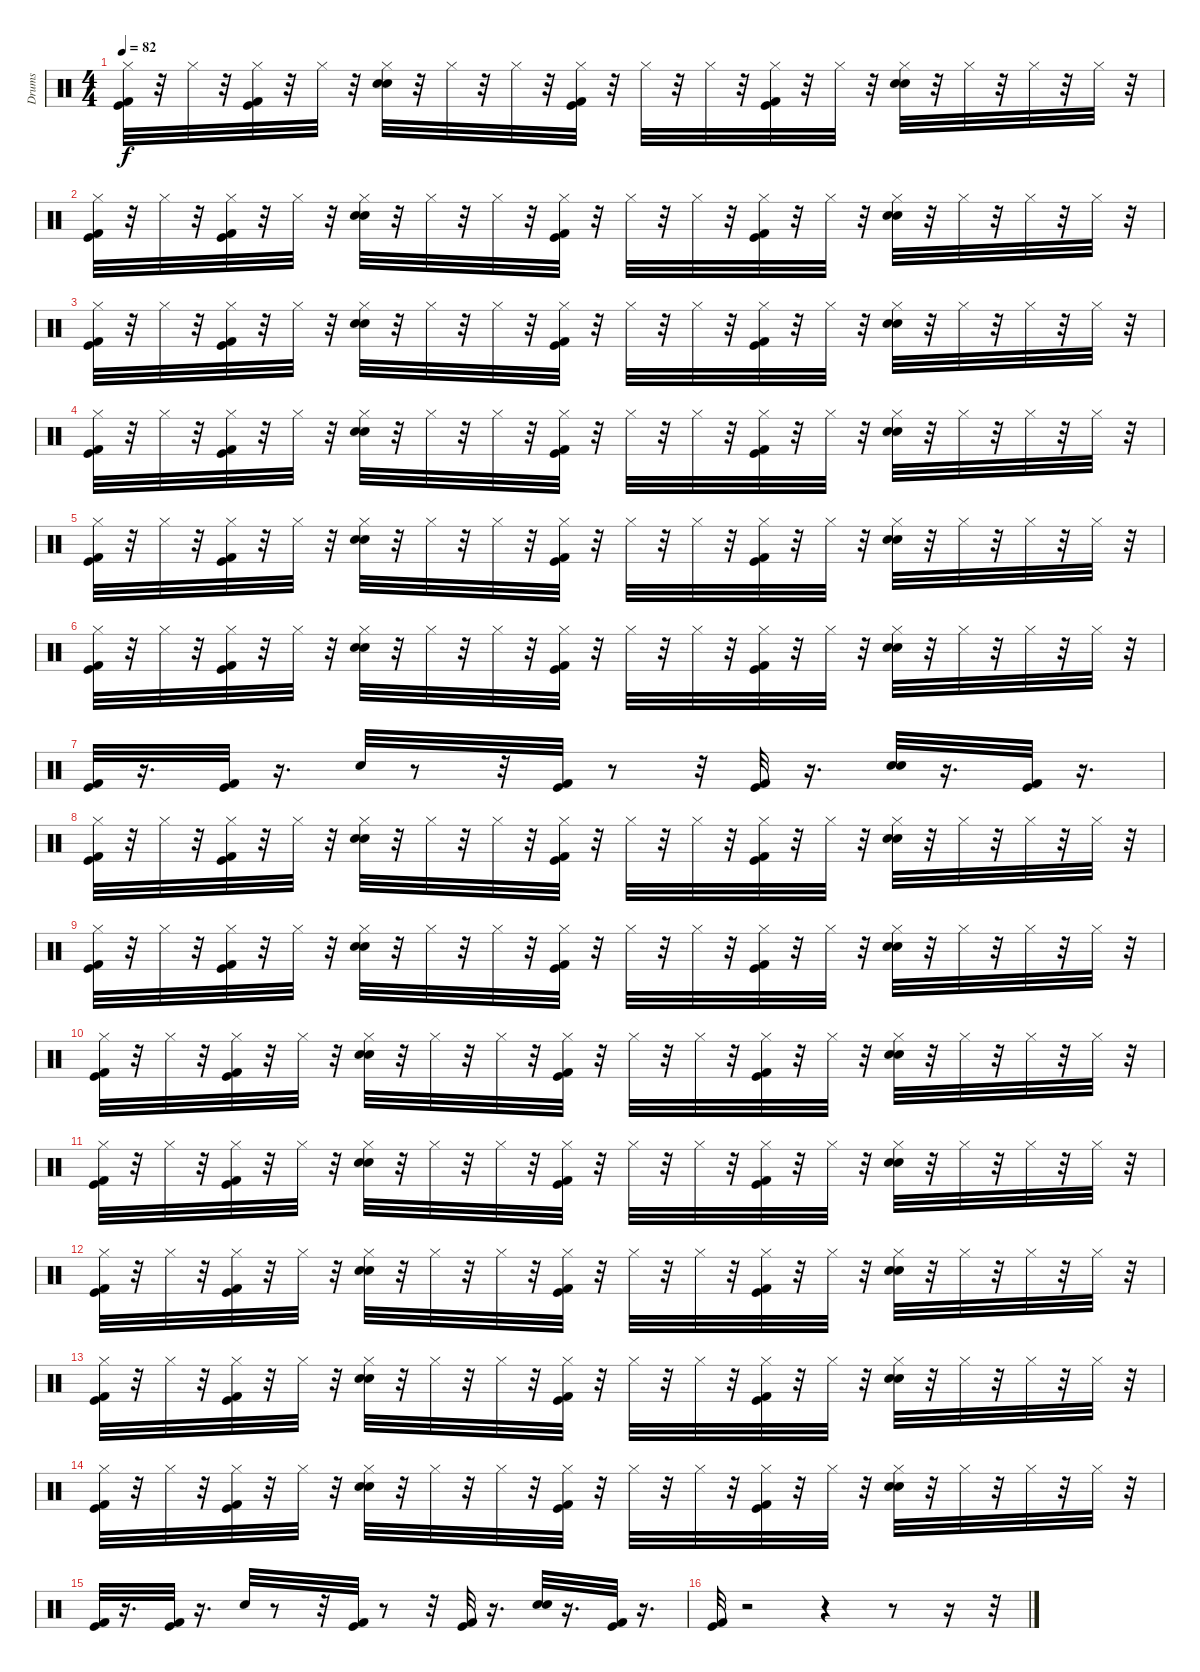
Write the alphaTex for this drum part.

\track ("Drums" "Drums") {instrument percussion}
\staff {score}
\articulation defaults
\ts (4 4)
\tempo 82
\clef neutral
\ks c
("Hi-Hat (closed)" "Kick (hit)" "Kick (hit) 2").32{dy f} r.32 "Hi-Hat (closed)".32 r.32 ("Hi-Hat (closed)" "Kick (hit) 2" "Kick (hit)").32 r.32 "Hi-Hat (closed)".32 r.32 ("Hi-Hat (closed)" "Snare (hit) 2" "Electric Snare (hit)").32 r.32 "Hi-Hat (closed)".32 r.32 "Hi-Hat (closed)".32 r.32 ("Hi-Hat (closed)" "Kick (hit) 2" "Kick (hit)").32 r.32 "Hi-Hat (closed)".32 r.32 "Hi-Hat (closed)".32 r.32 ("Hi-Hat (closed)" "Kick (hit) 2" "Kick (hit)").32 r.32 "Hi-Hat (closed)".32 r.32 ("Hi-Hat (closed)" "Electric Snare (hit)" "Snare (hit) 2").32 r.32 "Hi-Hat (closed)".32 r.32 "Hi-Hat (closed)".32 r.32 "Hi-Hat (closed)".32 r.32 |
("Hi-Hat (closed)" "Kick (hit)" "Kick (hit) 2").32 r.32 "Hi-Hat (closed)".32 r.32 ("Hi-Hat (closed)" "Kick (hit) 2" "Kick (hit)").32 r.32 "Hi-Hat (closed)".32 r.32 ("Hi-Hat (closed)" "Snare (hit) 2" "Electric Snare (hit)").32 r.32 "Hi-Hat (closed)".32 r.32 "Hi-Hat (closed)".32 r.32 ("Hi-Hat (closed)" "Kick (hit) 2" "Kick (hit)").32 r.32 "Hi-Hat (closed)".32 r.32 "Hi-Hat (closed)".32 r.32 ("Hi-Hat (closed)" "Kick (hit) 2" "Kick (hit)").32 r.32 "Hi-Hat (closed)".32 r.32 ("Hi-Hat (closed)" "Electric Snare (hit)" "Snare (hit) 2").32 r.32 "Hi-Hat (closed)".32 r.32 "Hi-Hat (closed)".32 r.32 "Hi-Hat (closed)".32 r.32 |
("Hi-Hat (closed)" "Kick (hit)" "Kick (hit) 2").32 r.32 "Hi-Hat (closed)".32 r.32 ("Hi-Hat (closed)" "Kick (hit) 2" "Kick (hit)").32 r.32 "Hi-Hat (closed)".32 r.32 ("Hi-Hat (closed)" "Snare (hit) 2" "Electric Snare (hit)").32 r.32 "Hi-Hat (closed)".32 r.32 "Hi-Hat (closed)".32 r.32 ("Hi-Hat (closed)" "Kick (hit) 2" "Kick (hit)").32 r.32 "Hi-Hat (closed)".32 r.32 "Hi-Hat (closed)".32 r.32 ("Hi-Hat (closed)" "Kick (hit) 2" "Kick (hit)").32 r.32 "Hi-Hat (closed)".32 r.32 ("Hi-Hat (closed)" "Electric Snare (hit)" "Snare (hit) 2").32 r.32 "Hi-Hat (closed)".32 r.32 "Hi-Hat (closed)".32 r.32 "Hi-Hat (closed)".32 r.32 |
("Hi-Hat (closed)" "Kick (hit)" "Kick (hit) 2").32 r.32 "Hi-Hat (closed)".32 r.32 ("Hi-Hat (closed)" "Kick (hit) 2" "Kick (hit)").32 r.32 "Hi-Hat (closed)".32 r.32 ("Hi-Hat (closed)" "Snare (hit) 2" "Electric Snare (hit)").32 r.32 "Hi-Hat (closed)".32 r.32 "Hi-Hat (closed)".32 r.32 ("Hi-Hat (closed)" "Kick (hit) 2" "Kick (hit)").32 r.32 "Hi-Hat (closed)".32 r.32 "Hi-Hat (closed)".32 r.32 ("Hi-Hat (closed)" "Kick (hit) 2" "Kick (hit)").32 r.32 "Hi-Hat (closed)".32 r.32 ("Hi-Hat (closed)" "Electric Snare (hit)" "Snare (hit) 2").32 r.32 "Hi-Hat (closed)".32 r.32 "Hi-Hat (closed)".32 r.32 "Hi-Hat (closed)".32 r.32 |
("Hi-Hat (closed)" "Kick (hit)" "Kick (hit) 2").32 r.32 "Hi-Hat (closed)".32 r.32 ("Hi-Hat (closed)" "Kick (hit) 2" "Kick (hit)").32 r.32 "Hi-Hat (closed)".32 r.32 ("Hi-Hat (closed)" "Snare (hit) 2" "Electric Snare (hit)").32 r.32 "Hi-Hat (closed)".32 r.32 "Hi-Hat (closed)".32 r.32 ("Hi-Hat (closed)" "Kick (hit) 2" "Kick (hit)").32 r.32 "Hi-Hat (closed)".32 r.32 "Hi-Hat (closed)".32 r.32 ("Hi-Hat (closed)" "Kick (hit) 2" "Kick (hit)").32 r.32 "Hi-Hat (closed)".32 r.32 ("Hi-Hat (closed)" "Electric Snare (hit)" "Snare (hit) 2").32 r.32 "Hi-Hat (closed)".32 r.32 "Hi-Hat (closed)".32 r.32 "Hi-Hat (closed)".32 r.32 |
("Hi-Hat (closed)" "Kick (hit)" "Kick (hit) 2").32 r.32 "Hi-Hat (closed)".32 r.32 ("Hi-Hat (closed)" "Kick (hit) 2" "Kick (hit)").32 r.32 "Hi-Hat (closed)".32 r.32 ("Hi-Hat (closed)" "Snare (hit) 2" "Electric Snare (hit)").32 r.32 "Hi-Hat (closed)".32 r.32 "Hi-Hat (closed)".32 r.32 ("Hi-Hat (closed)" "Kick (hit) 2" "Kick (hit)").32 r.32 "Hi-Hat (closed)".32 r.32 "Hi-Hat (closed)".32 r.32 ("Hi-Hat (closed)" "Kick (hit) 2" "Kick (hit)").32 r.32 "Hi-Hat (closed)".32 r.32 ("Hi-Hat (closed)" "Electric Snare (hit)" "Snare (hit) 2").32 r.32 "Hi-Hat (closed)".32 r.32 "Hi-Hat (closed)".32 r.32 "Hi-Hat (closed)".32 r.32 |
("Kick (hit)" "Kick (hit) 2").32 r.16{d} ("Kick (hit)" "Kick (hit) 2").32 r.16{d} "Hand Clap (hit)".32 r.8 r.32 ("Kick (hit)" "Kick (hit) 2").32 r.8 r.32 ("Kick (hit)" "Kick (hit) 2").32 r.16{d} ("Snare (hit) 2" "Electric Snare (hit)").32 r.16{d} ("Kick (hit)" "Kick (hit) 2").32 r.16{d} |
("Hi-Hat (closed)" "Kick (hit)" "Kick (hit) 2").32 r.32 "Hi-Hat (closed)".32 r.32 ("Hi-Hat (closed)" "Kick (hit) 2" "Kick (hit)").32 r.32 "Hi-Hat (closed)".32 r.32 ("Hi-Hat (closed)" "Snare (hit) 2" "Electric Snare (hit)").32 r.32 "Hi-Hat (closed)".32 r.32 "Hi-Hat (closed)".32 r.32 ("Hi-Hat (closed)" "Kick (hit) 2" "Kick (hit)").32 r.32 "Hi-Hat (closed)".32 r.32 "Hi-Hat (closed)".32 r.32 ("Hi-Hat (closed)" "Kick (hit) 2" "Kick (hit)").32 r.32 "Hi-Hat (closed)".32 r.32 ("Hi-Hat (closed)" "Electric Snare (hit)" "Snare (hit) 2").32 r.32 "Hi-Hat (closed)".32 r.32 "Hi-Hat (closed)".32 r.32 "Hi-Hat (closed)".32 r.32 |
("Hi-Hat (closed)" "Kick (hit)" "Kick (hit) 2").32 r.32 "Hi-Hat (closed)".32 r.32 ("Hi-Hat (closed)" "Kick (hit) 2" "Kick (hit)").32 r.32 "Hi-Hat (closed)".32 r.32 ("Hi-Hat (closed)" "Snare (hit) 2" "Electric Snare (hit)").32 r.32 "Hi-Hat (closed)".32 r.32 "Hi-Hat (closed)".32 r.32 ("Hi-Hat (closed)" "Kick (hit) 2" "Kick (hit)").32 r.32 "Hi-Hat (closed)".32 r.32 "Hi-Hat (closed)".32 r.32 ("Hi-Hat (closed)" "Kick (hit) 2" "Kick (hit)").32 r.32 "Hi-Hat (closed)".32 r.32 ("Hi-Hat (closed)" "Electric Snare (hit)" "Snare (hit) 2").32 r.32 "Hi-Hat (closed)".32 r.32 "Hi-Hat (closed)".32 r.32 "Hi-Hat (closed)".32 r.32 |
("Hi-Hat (closed)" "Kick (hit)" "Kick (hit) 2").32 r.32 "Hi-Hat (closed)".32 r.32 ("Hi-Hat (closed)" "Kick (hit) 2" "Kick (hit)").32 r.32 "Hi-Hat (closed)".32 r.32 ("Hi-Hat (closed)" "Snare (hit) 2" "Electric Snare (hit)").32 r.32 "Hi-Hat (closed)".32 r.32 "Hi-Hat (closed)".32 r.32 ("Hi-Hat (closed)" "Kick (hit) 2" "Kick (hit)").32 r.32 "Hi-Hat (closed)".32 r.32 "Hi-Hat (closed)".32 r.32 ("Hi-Hat (closed)" "Kick (hit) 2" "Kick (hit)").32 r.32 "Hi-Hat (closed)".32 r.32 ("Hi-Hat (closed)" "Electric Snare (hit)" "Snare (hit) 2").32 r.32 "Hi-Hat (closed)".32 r.32 "Hi-Hat (closed)".32 r.32 "Hi-Hat (closed)".32 r.32 |
("Hi-Hat (closed)" "Kick (hit)" "Kick (hit) 2").32 r.32 "Hi-Hat (closed)".32 r.32 ("Hi-Hat (closed)" "Kick (hit) 2" "Kick (hit)").32 r.32 "Hi-Hat (closed)".32 r.32 ("Hi-Hat (closed)" "Snare (hit) 2" "Electric Snare (hit)").32 r.32 "Hi-Hat (closed)".32 r.32 "Hi-Hat (closed)".32 r.32 ("Hi-Hat (closed)" "Kick (hit) 2" "Kick (hit)").32 r.32 "Hi-Hat (closed)".32 r.32 "Hi-Hat (closed)".32 r.32 ("Hi-Hat (closed)" "Kick (hit) 2" "Kick (hit)").32 r.32 "Hi-Hat (closed)".32 r.32 ("Hi-Hat (closed)" "Electric Snare (hit)" "Snare (hit) 2").32 r.32 "Hi-Hat (closed)".32 r.32 "Hi-Hat (closed)".32 r.32 "Hi-Hat (closed)".32 r.32 |
("Hi-Hat (closed)" "Kick (hit)" "Kick (hit) 2").32 r.32 "Hi-Hat (closed)".32 r.32 ("Hi-Hat (closed)" "Kick (hit) 2" "Kick (hit)").32 r.32 "Hi-Hat (closed)".32 r.32 ("Hi-Hat (closed)" "Snare (hit) 2" "Electric Snare (hit)").32 r.32 "Hi-Hat (closed)".32 r.32 "Hi-Hat (closed)".32 r.32 ("Hi-Hat (closed)" "Kick (hit) 2" "Kick (hit)").32 r.32 "Hi-Hat (closed)".32 r.32 "Hi-Hat (closed)".32 r.32 ("Hi-Hat (closed)" "Kick (hit) 2" "Kick (hit)").32 r.32 "Hi-Hat (closed)".32 r.32 ("Hi-Hat (closed)" "Electric Snare (hit)" "Snare (hit) 2").32 r.32 "Hi-Hat (closed)".32 r.32 "Hi-Hat (closed)".32 r.32 "Hi-Hat (closed)".32 r.32 |
("Hi-Hat (closed)" "Kick (hit)" "Kick (hit) 2").32 r.32 "Hi-Hat (closed)".32 r.32 ("Hi-Hat (closed)" "Kick (hit) 2" "Kick (hit)").32 r.32 "Hi-Hat (closed)".32 r.32 ("Hi-Hat (closed)" "Snare (hit) 2" "Electric Snare (hit)").32 r.32 "Hi-Hat (closed)".32 r.32 "Hi-Hat (closed)".32 r.32 ("Hi-Hat (closed)" "Kick (hit) 2" "Kick (hit)").32 r.32 "Hi-Hat (closed)".32 r.32 "Hi-Hat (closed)".32 r.32 ("Hi-Hat (closed)" "Kick (hit) 2" "Kick (hit)").32 r.32 "Hi-Hat (closed)".32 r.32 ("Hi-Hat (closed)" "Electric Snare (hit)" "Snare (hit) 2").32 r.32 "Hi-Hat (closed)".32 r.32 "Hi-Hat (closed)".32 r.32 "Hi-Hat (closed)".32 r.32 |
("Hi-Hat (closed)" "Kick (hit)" "Kick (hit) 2").32 r.32 "Hi-Hat (closed)".32 r.32 ("Hi-Hat (closed)" "Kick (hit) 2" "Kick (hit)").32 r.32 "Hi-Hat (closed)".32 r.32 ("Hi-Hat (closed)" "Snare (hit) 2" "Electric Snare (hit)").32 r.32 "Hi-Hat (closed)".32 r.32 "Hi-Hat (closed)".32 r.32 ("Hi-Hat (closed)" "Kick (hit) 2" "Kick (hit)").32 r.32 "Hi-Hat (closed)".32 r.32 "Hi-Hat (closed)".32 r.32 ("Hi-Hat (closed)" "Kick (hit) 2" "Kick (hit)").32 r.32 "Hi-Hat (closed)".32 r.32 ("Hi-Hat (closed)" "Electric Snare (hit)" "Snare (hit) 2").32 r.32 "Hi-Hat (closed)".32 r.32 "Hi-Hat (closed)".32 r.32 "Hi-Hat (closed)".32 r.32 |
("Kick (hit)" "Kick (hit) 2").32 r.16{d} ("Kick (hit)" "Kick (hit) 2").32 r.16{d} "Hand Clap (hit)".32 r.8 r.32 ("Kick (hit)" "Kick (hit) 2").32 r.8 r.32 ("Kick (hit)" "Kick (hit) 2").32 r.16{d} ("Snare (hit) 2" "Electric Snare (hit)").32 r.16{d} ("Kick (hit)" "Kick (hit) 2").32 r.16{d} |
("Kick (hit)" "Kick (hit) 2").32 r.2 r.4 r.8 r.16 r.32
